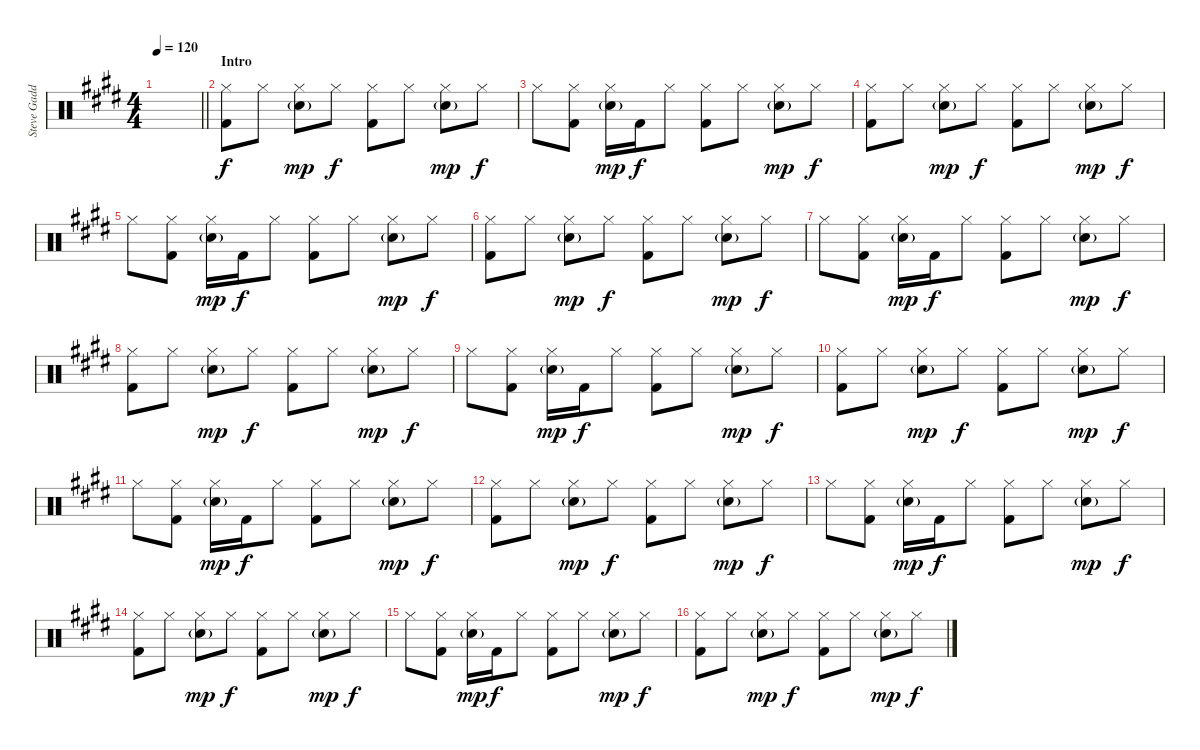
\track ("Steve Gadd Drums" "Steve Gadd") {instrument percussion}
\staff {score}
\articulation defaults
\ts (4 4)
\tempo 120
\clef neutral
\barLineRight lightlight
\ks e
|
\section ("" "Intro")
("Hi-Hat (closed)" "Kick (hit) 2").8 "Hi-Hat (closed)".8 ("Hi-Hat (closed)" "Snare (hit) 2"{g}).8{dy mp} "Hi-Hat (closed)".8{dy f} ("Hi-Hat (closed)" "Kick (hit) 2").8 "Hi-Hat (closed)".8 ("Hi-Hat (closed)" "Snare (hit) 2"{g}).8{dy mp} "Hi-Hat (closed)".8{dy f} |
"Hi-Hat (closed)".8 ("Hi-Hat (closed)" "Kick (hit) 2").8 ("Hi-Hat (closed)" "Snare (hit) 2"{g}).16{dy mp} "Kick (hit) 2".16{dy f} "Hi-Hat (closed)".8 ("Hi-Hat (closed)" "Kick (hit) 2").8 "Hi-Hat (closed)".8 ("Hi-Hat (closed)" "Snare (hit) 2"{g}).8{dy mp} "Hi-Hat (closed)".8{dy f} |
("Hi-Hat (closed)" "Kick (hit) 2").8 "Hi-Hat (closed)".8 ("Hi-Hat (closed)" "Snare (hit) 2"{g}).8{dy mp} "Hi-Hat (closed)".8{dy f} ("Hi-Hat (closed)" "Kick (hit) 2").8 "Hi-Hat (closed)".8 ("Hi-Hat (closed)" "Snare (hit) 2"{g}).8{dy mp} "Hi-Hat (closed)".8{dy f} |
"Hi-Hat (closed)".8 ("Hi-Hat (closed)" "Kick (hit) 2").8 ("Hi-Hat (closed)" "Snare (hit) 2"{g}).16{dy mp} "Kick (hit) 2".16{dy f} "Hi-Hat (closed)".8 ("Hi-Hat (closed)" "Kick (hit) 2").8 "Hi-Hat (closed)".8 ("Hi-Hat (closed)" "Snare (hit) 2"{g}).8{dy mp} "Hi-Hat (closed)".8{dy f} |
("Hi-Hat (closed)" "Kick (hit) 2").8 "Hi-Hat (closed)".8 ("Hi-Hat (closed)" "Snare (hit) 2"{g}).8{dy mp} "Hi-Hat (closed)".8{dy f} ("Hi-Hat (closed)" "Kick (hit) 2").8 "Hi-Hat (closed)".8 ("Hi-Hat (closed)" "Snare (hit) 2"{g}).8{dy mp} "Hi-Hat (closed)".8{dy f} |
"Hi-Hat (closed)".8 ("Hi-Hat (closed)" "Kick (hit) 2").8 ("Hi-Hat (closed)" "Snare (hit) 2"{g}).16{dy mp} "Kick (hit) 2".16{dy f} "Hi-Hat (closed)".8 ("Hi-Hat (closed)" "Kick (hit) 2").8 "Hi-Hat (closed)".8 ("Hi-Hat (closed)" "Snare (hit) 2"{g}).8{dy mp} "Hi-Hat (closed)".8{dy f} |
("Hi-Hat (closed)" "Kick (hit) 2").8 "Hi-Hat (closed)".8 ("Hi-Hat (closed)" "Snare (hit) 2"{g}).8{dy mp} "Hi-Hat (closed)".8{dy f} ("Hi-Hat (closed)" "Kick (hit) 2").8 "Hi-Hat (closed)".8 ("Hi-Hat (closed)" "Snare (hit) 2"{g}).8{dy mp} "Hi-Hat (closed)".8{dy f} |
"Hi-Hat (closed)".8 ("Hi-Hat (closed)" "Kick (hit) 2").8 ("Hi-Hat (closed)" "Snare (hit) 2"{g}).16{dy mp} "Kick (hit) 2".16{dy f} "Hi-Hat (closed)".8 ("Hi-Hat (closed)" "Kick (hit) 2").8 "Hi-Hat (closed)".8 ("Hi-Hat (closed)" "Snare (hit) 2"{g}).8{dy mp} "Hi-Hat (closed)".8{dy f} |
("Hi-Hat (closed)" "Kick (hit) 2").8 "Hi-Hat (closed)".8 ("Hi-Hat (closed)" "Snare (hit) 2"{g}).8{dy mp} "Hi-Hat (closed)".8{dy f} ("Hi-Hat (closed)" "Kick (hit) 2").8 "Hi-Hat (closed)".8 ("Hi-Hat (closed)" "Snare (hit) 2"{g}).8{dy mp} "Hi-Hat (closed)".8{dy f} |
"Hi-Hat (closed)".8 ("Hi-Hat (closed)" "Kick (hit) 2").8 ("Hi-Hat (closed)" "Snare (hit) 2"{g}).16{dy mp} "Kick (hit) 2".16{dy f} "Hi-Hat (closed)".8 ("Hi-Hat (closed)" "Kick (hit) 2").8 "Hi-Hat (closed)".8 ("Hi-Hat (closed)" "Snare (hit) 2"{g}).8{dy mp} "Hi-Hat (closed)".8{dy f} |
("Hi-Hat (closed)" "Kick (hit) 2").8 "Hi-Hat (closed)".8 ("Hi-Hat (closed)" "Snare (hit) 2"{g}).8{dy mp} "Hi-Hat (closed)".8{dy f} ("Hi-Hat (closed)" "Kick (hit) 2").8 "Hi-Hat (closed)".8 ("Hi-Hat (closed)" "Snare (hit) 2"{g}).8{dy mp} "Hi-Hat (closed)".8{dy f} |
"Hi-Hat (closed)".8 ("Hi-Hat (closed)" "Kick (hit) 2").8 ("Hi-Hat (closed)" "Snare (hit) 2"{g}).16{dy mp} "Kick (hit) 2".16{dy f} "Hi-Hat (closed)".8 ("Hi-Hat (closed)" "Kick (hit) 2").8 "Hi-Hat (closed)".8 ("Hi-Hat (closed)" "Snare (hit) 2"{g}).8{dy mp} "Hi-Hat (closed)".8{dy f} |
("Hi-Hat (closed)" "Kick (hit) 2").8 "Hi-Hat (closed)".8 ("Hi-Hat (closed)" "Snare (hit) 2"{g}).8{dy mp} "Hi-Hat (closed)".8{dy f} ("Hi-Hat (closed)" "Kick (hit) 2").8 "Hi-Hat (closed)".8 ("Hi-Hat (closed)" "Snare (hit) 2"{g}).8{dy mp} "Hi-Hat (closed)".8{dy f} |
"Hi-Hat (closed)".8 ("Hi-Hat (closed)" "Kick (hit) 2").8 ("Hi-Hat (closed)" "Snare (hit) 2"{g}).16{dy mp} "Kick (hit) 2".16{dy f} "Hi-Hat (closed)".8 ("Hi-Hat (closed)" "Kick (hit) 2").8 "Hi-Hat (closed)".8 ("Hi-Hat (closed)" "Snare (hit) 2"{g}).8{dy mp} "Hi-Hat (closed)".8{dy f} |
("Hi-Hat (closed)" "Kick (hit) 2").8 "Hi-Hat (closed)".8 ("Hi-Hat (closed)" "Snare (hit) 2"{g}).8{dy mp} "Hi-Hat (closed)".8{dy f} ("Hi-Hat (closed)" "Kick (hit) 2").8 "Hi-Hat (closed)".8 ("Hi-Hat (closed)" "Snare (hit) 2"{g}).8{dy mp} "Hi-Hat (closed)".8{dy f}
